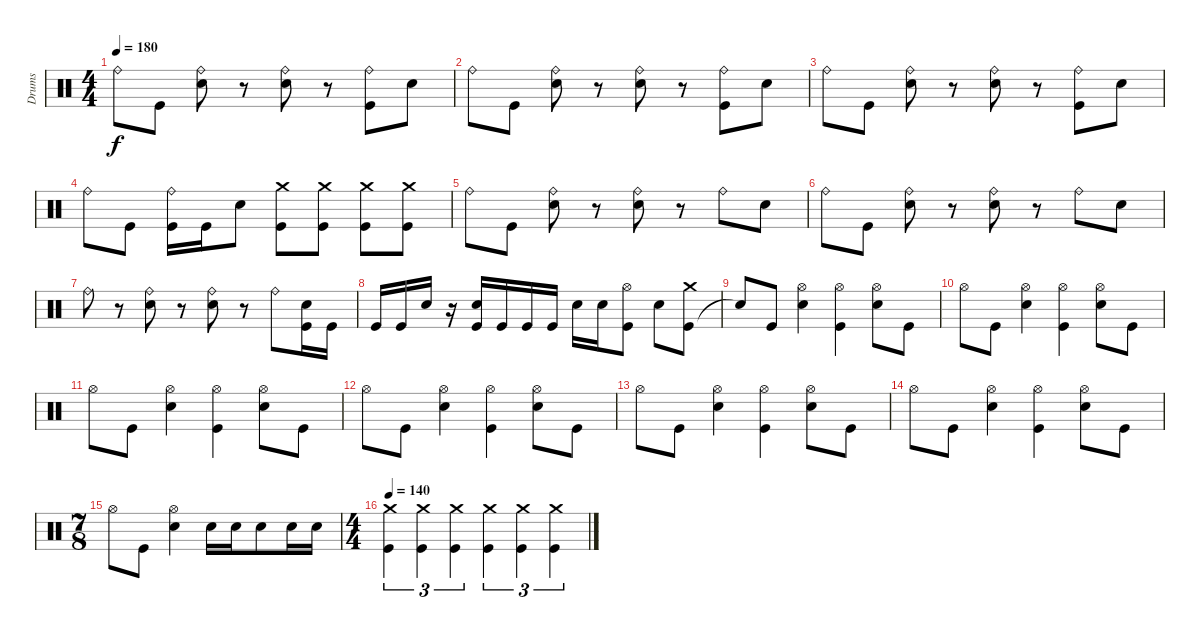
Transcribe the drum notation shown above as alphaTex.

\track ("Drums" "Drums") {instrument percussion}
\staff {score}
\articulation defaults
\ts (4 4)
\tempo 180
\clef neutral
\ks c "Ride (bell)".8{dy f} "Kick (hit)".8
("Electric Snare (hit)" "Ride (bell)").8 r.8 ("Electric Snare (hit)" "Ride (bell)").8 r.8 ("Kick (hit)" "Ride (bell)").8 "Electric Snare (hit)".8 |
"Ride (bell)".8 "Kick (hit)".8 ("Electric Snare (hit)" "Ride (bell)").8 r.8 ("Electric Snare (hit)" "Ride (bell)").8 r.8 ("Kick (hit)" "Ride (bell)").8 "Electric Snare (hit)".8 |
"Ride (bell)".8 "Kick (hit)".8 ("Electric Snare (hit)" "Ride (bell)").8 r.8 ("Electric Snare (hit)" "Ride (bell)").8 r.8 ("Kick (hit)" "Ride (bell)").8 "Electric Snare (hit)".8 |
"Ride (bell)".8 "Kick (hit)".8 ("Kick (hit)" "Ride (bell)").16 "Kick (hit)".16 "Electric Snare (hit)".8 ("Kick (hit)" "Crash medium (hit)").8 ("Kick (hit)" "Crash medium (hit)").8 ("Kick (hit)" "Crash medium (hit)").8 ("Kick (hit)" "Crash medium (hit)").8 |
"Ride (bell)".8 "Kick (hit)".8 ("Electric Snare (hit)" "Ride (bell)").8 r.8 ("Electric Snare (hit)" "Ride (bell)").8 r.8 "Ride (bell)".8 "Electric Snare (hit)".8 |
"Ride (bell)".8 "Kick (hit)".8 ("Electric Snare (hit)" "Ride (bell)").8 r.8 ("Electric Snare (hit)" "Ride (bell)").8 r.8 "Ride (bell)".8 "Electric Snare (hit)".8 |
"Ride (bell)".8 r.8 ("Electric Snare (hit)" "Ride (bell)").8 r.8 ("Electric Snare (hit)" "Ride (bell)").8 r.8 "Ride (bell)".8 ("Kick (hit)" "Electric Snare (hit)").16 "Kick (hit)".16 |
"Kick (hit)".16 "Kick (hit)".16 "Electric Snare (hit)".16 r.16 ("Kick (hit)" "Electric Snare (hit)").16 "Kick (hit)".16 "Kick (hit)".16 "Kick (hit)".16 "Electric Snare (hit)".16 "Electric Snare (hit)".16 ("Kick (hit)" "Hi-Hat (open)").8 "Electric Snare (hit)".8 ("Kick (hit)" "Crash medium (hit)").8 |
"Snare (hit)"{t}.8 "Kick (hit)".8 ("Electric Snare (hit)" "Hi-Hat (open)").4 ("Kick (hit)" "Hi-Hat (open)").4 ("Electric Snare (hit)" "Hi-Hat (open)").8 "Kick (hit)".8 |
"Hi-Hat (open)".8 "Kick (hit)".8 ("Electric Snare (hit)" "Hi-Hat (open)").4 ("Kick (hit)" "Hi-Hat (open)").4 ("Electric Snare (hit)" "Hi-Hat (open)").8 "Kick (hit)".8 |
"Hi-Hat (open)".8 "Kick (hit)".8 ("Electric Snare (hit)" "Hi-Hat (open)").4 ("Kick (hit)" "Hi-Hat (open)").4 ("Electric Snare (hit)" "Hi-Hat (open)").8 "Kick (hit)".8 |
"Hi-Hat (open)".8 "Kick (hit)".8 ("Electric Snare (hit)" "Hi-Hat (open)").4 ("Kick (hit)" "Hi-Hat (open)").4 ("Electric Snare (hit)" "Hi-Hat (open)").8 "Kick (hit)".8 |
"Hi-Hat (open)".8 "Kick (hit)".8 ("Electric Snare (hit)" "Hi-Hat (open)").4 ("Kick (hit)" "Hi-Hat (open)").4 ("Electric Snare (hit)" "Hi-Hat (open)").8 "Kick (hit)".8 |
"Hi-Hat (open)".8 "Kick (hit)".8 ("Electric Snare (hit)" "Hi-Hat (open)").4 ("Kick (hit)" "Hi-Hat (open)").4 ("Electric Snare (hit)" "Hi-Hat (open)").8 "Kick (hit)".8 |
\ts (7 8)
"Hi-Hat (open)".8 "Kick (hit)".8 ("Electric Snare (hit)" "Hi-Hat (open)").4 "Electric Snare (hit)".16 "Electric Snare (hit)".16 "Electric Snare (hit)".8 "Electric Snare (hit)".16 "Electric Snare (hit)".16 |
\ts (4 4)
\tempo 140
("Kick (hit)" "Crash medium (hit)").4{tu (3 2)} ("Kick (hit)" "Crash medium (hit)").4{tu (3 2)} ("Kick (hit)" "Crash medium (hit)").4{tu (3 2)} ("Kick (hit)" "Crash medium (hit)").4{tu (3 2)} ("Kick (hit)" "Crash medium (hit)").4{tu (3 2)} ("Kick (hit)" "Crash medium (hit)").4{tu (3 2)}
